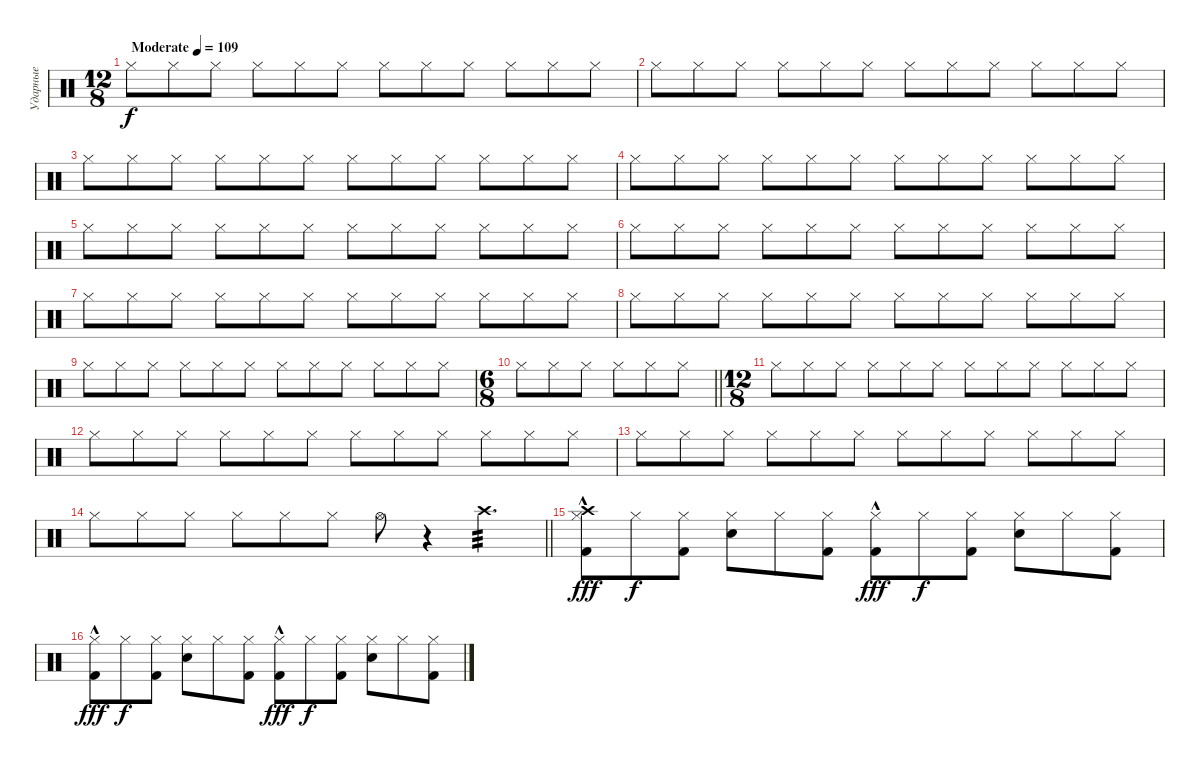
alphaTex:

\track ("Ударные" "Ударные") {instrument percussion}
\staff {score}
\articulation defaults
\ts (12 8)
\tempo (109 "Moderate")
\clef neutral
\ks c "Hi-Hat (closed)".8{dy f} "Hi-Hat (closed)".8 "Hi-Hat (closed)".8 "Hi-Hat (closed)".8 "Hi-Hat (closed)".8 "Hi-Hat (closed)".8 "Hi-Hat (closed)".8 "Hi-Hat (closed)".8 "Hi-Hat (closed)".8 "Hi-Hat (closed)".8 "Hi-Hat (closed)".8 "Hi-Hat (closed)".8
|
"Hi-Hat (closed)".8 "Hi-Hat (closed)".8 "Hi-Hat (closed)".8 "Hi-Hat (closed)".8 "Hi-Hat (closed)".8 "Hi-Hat (closed)".8 "Hi-Hat (closed)".8 "Hi-Hat (closed)".8 "Hi-Hat (closed)".8 "Hi-Hat (closed)".8 "Hi-Hat (closed)".8 "Hi-Hat (closed)".8 |
"Hi-Hat (closed)".8 "Hi-Hat (closed)".8 "Hi-Hat (closed)".8 "Hi-Hat (closed)".8 "Hi-Hat (closed)".8 "Hi-Hat (closed)".8 "Hi-Hat (closed)".8 "Hi-Hat (closed)".8 "Hi-Hat (closed)".8 "Hi-Hat (closed)".8 "Hi-Hat (closed)".8 "Hi-Hat (closed)".8 |
"Hi-Hat (closed)".8 "Hi-Hat (closed)".8 "Hi-Hat (closed)".8 "Hi-Hat (closed)".8 "Hi-Hat (closed)".8 "Hi-Hat (closed)".8 "Hi-Hat (closed)".8 "Hi-Hat (closed)".8 "Hi-Hat (closed)".8 "Hi-Hat (closed)".8 "Hi-Hat (closed)".8 "Hi-Hat (closed)".8 |
"Hi-Hat (closed)".8 "Hi-Hat (closed)".8 "Hi-Hat (closed)".8 "Hi-Hat (closed)".8 "Hi-Hat (closed)".8 "Hi-Hat (closed)".8 "Hi-Hat (closed)".8 "Hi-Hat (closed)".8 "Hi-Hat (closed)".8 "Hi-Hat (closed)".8 "Hi-Hat (closed)".8 "Hi-Hat (closed)".8 |
"Hi-Hat (closed)".8 "Hi-Hat (closed)".8 "Hi-Hat (closed)".8 "Hi-Hat (closed)".8 "Hi-Hat (closed)".8 "Hi-Hat (closed)".8 "Hi-Hat (closed)".8 "Hi-Hat (closed)".8 "Hi-Hat (closed)".8 "Hi-Hat (closed)".8 "Hi-Hat (closed)".8 "Hi-Hat (closed)".8 |
"Hi-Hat (closed)".8 "Hi-Hat (closed)".8 "Hi-Hat (closed)".8 "Hi-Hat (closed)".8 "Hi-Hat (closed)".8 "Hi-Hat (closed)".8 "Hi-Hat (closed)".8 "Hi-Hat (closed)".8 "Hi-Hat (closed)".8 "Hi-Hat (closed)".8 "Hi-Hat (closed)".8 "Hi-Hat (closed)".8 |
"Hi-Hat (closed)".8 "Hi-Hat (closed)".8 "Hi-Hat (closed)".8 "Hi-Hat (closed)".8 "Hi-Hat (closed)".8 "Hi-Hat (closed)".8 "Hi-Hat (closed)".8 "Hi-Hat (closed)".8 "Hi-Hat (closed)".8 "Hi-Hat (closed)".8 "Hi-Hat (closed)".8 "Hi-Hat (closed)".8 |
"Hi-Hat (closed)".8 "Hi-Hat (closed)".8 "Hi-Hat (closed)".8 "Hi-Hat (closed)".8 "Hi-Hat (closed)".8 "Hi-Hat (closed)".8 "Hi-Hat (closed)".8 "Hi-Hat (closed)".8 "Hi-Hat (closed)".8 "Hi-Hat (closed)".8 "Hi-Hat (closed)".8 "Hi-Hat (closed)".8 |
\ts (6 8)
\barLineRight lightlight "Hi-Hat (closed)".8 "Hi-Hat (closed)".8 "Hi-Hat (closed)".8 "Hi-Hat (closed)".8 "Hi-Hat (closed)".8 "Hi-Hat (closed)".8
|
\ts (12 8)
"Hi-Hat (closed)".8 "Hi-Hat (closed)".8 "Hi-Hat (closed)".8 "Hi-Hat (closed)".8 "Hi-Hat (closed)".8 "Hi-Hat (closed)".8 "Hi-Hat (closed)".8 "Hi-Hat (closed)".8 "Hi-Hat (closed)".8 "Hi-Hat (closed)".8 "Hi-Hat (closed)".8 "Hi-Hat (closed)".8 |
"Hi-Hat (closed)".8 "Hi-Hat (closed)".8 "Hi-Hat (closed)".8 "Hi-Hat (closed)".8 "Hi-Hat (closed)".8 "Hi-Hat (closed)".8 "Hi-Hat (closed)".8 "Hi-Hat (closed)".8 "Hi-Hat (closed)".8 "Hi-Hat (closed)".8 "Hi-Hat (closed)".8 "Hi-Hat (closed)".8 |
"Hi-Hat (closed)".8 "Hi-Hat (closed)".8 "Hi-Hat (closed)".8 "Hi-Hat (closed)".8 "Hi-Hat (closed)".8 "Hi-Hat (closed)".8 "Hi-Hat (closed)".8 "Hi-Hat (closed)".8 "Hi-Hat (closed)".8 "Hi-Hat (closed)".8 "Hi-Hat (closed)".8 "Hi-Hat (closed)".8 |
\barLineRight lightlight "Hi-Hat (closed)".8 "Hi-Hat (closed)".8 "Hi-Hat (closed)".8 "Hi-Hat (closed)".8 "Hi-Hat (closed)".8 "Hi-Hat (closed)".8 "Hi-Hat (open)".8
r.4{volume 0} "Crash high (hit)".4{d tp 3 volume 9} |
("Hi-Hat (closed)" "Kick (hit) 2"{hac} "Crash high (hit)").8{dy fff} "Hi-Hat (closed)".8{dy f} ("Hi-Hat (closed)" "Kick (hit) 2").8 ("Hi-Hat (closed)" "Electric Snare (hit)").8 "Hi-Hat (closed)".8 ("Hi-Hat (closed)" "Kick (hit) 2").8 ("Hi-Hat (closed)" "Kick (hit) 2"{hac}).8{dy fff} "Hi-Hat (closed)".8{dy f} ("Hi-Hat (closed)" "Kick (hit) 2").8 ("Hi-Hat (closed)" "Electric Snare (hit)").8 "Hi-Hat (closed)".8 ("Hi-Hat (closed)" "Kick (hit) 2").8 |
("Hi-Hat (closed)" "Kick (hit) 2"{hac}).8{dy fff} "Hi-Hat (closed)".8{dy f} ("Hi-Hat (closed)" "Kick (hit) 2").8 ("Hi-Hat (closed)" "Electric Snare (hit)").8 "Hi-Hat (closed)".8 ("Hi-Hat (closed)" "Kick (hit) 2").8 ("Hi-Hat (closed)" "Kick (hit) 2"{hac}).8{dy fff} "Hi-Hat (closed)".8{dy f} ("Hi-Hat (closed)" "Kick (hit) 2").8 ("Hi-Hat (closed)" "Electric Snare (hit)").8 "Hi-Hat (closed)".8 ("Hi-Hat (closed)" "Kick (hit) 2").8
